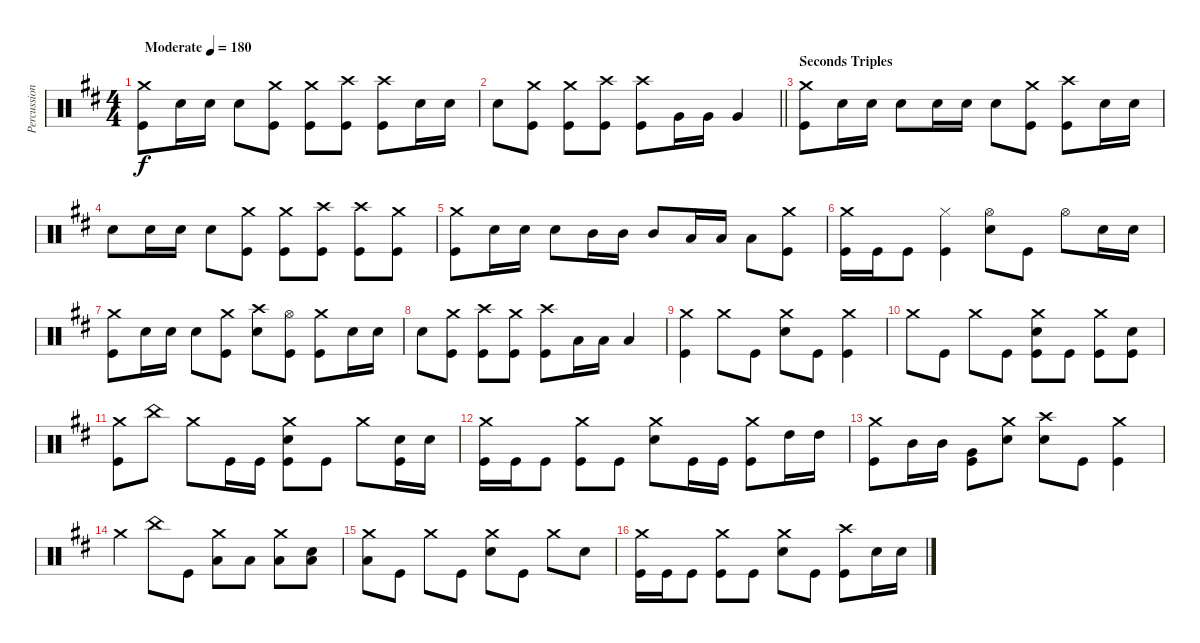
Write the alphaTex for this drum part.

\track ("Percussion" "Percussion") {instrument percussion}
\staff {score}
\articulation defaults
\ts (4 4)
\section ("" "")
\tempo (180 "Moderate")
\clef neutral
\ks d
("Crash medium (hit)" "Kick (hit)").8{dy f} "Electric Snare (hit)".16 "Electric Snare (hit)".16 "Electric Snare (hit)".8 ("Crash medium (hit)" "Kick (hit)").8 ("Crash medium (hit)" "Kick (hit)").8 ("Crash high (hit)" "Kick (hit)").8 ("Crash high (hit)" "Kick (hit)").8 "Electric Snare (hit)".16 "Electric Snare (hit)".16 |
\barLineRight lightlight "Electric Snare (hit)".8
("Crash medium (hit)" "Kick (hit)").8 ("Crash medium (hit)" "Kick (hit)").8 ("Crash high (hit)" "Kick (hit)").8 ("Crash high (hit)" "Kick (hit)").8 "Very Low Tom (hit)".16 "Very Low Tom (hit)".16 "Very Low Tom (hit)".4 |
\section ("" "Seconds Triples")
("Crash medium (hit)" "Kick (hit)").8 "Electric Snare (hit)".16 "Electric Snare (hit)".16 "Electric Snare (hit)".8 "Electric Snare (hit)".16 "Electric Snare (hit)".16 "Electric Snare (hit)".8 ("Crash medium (hit)" "Kick (hit)").8 ("Crash high (hit)" "Kick (hit)").8 "Electric Snare (hit)".16 "Electric Snare (hit)".16 |
"Electric Snare (hit)".8 "Electric Snare (hit)".16 "Electric Snare (hit)".16 "Electric Snare (hit)".8 ("Crash medium (hit)" "Kick (hit)").8 ("Crash medium (hit)" "Kick (hit)").8 ("Crash high (hit)" "Kick (hit)").8 ("Crash high (hit)" "Kick (hit)").8 ("Crash medium (hit)" "Kick (hit)").8 |
("Crash medium (hit)" "Kick (hit)").8 "Electric Snare (hit)".16 "Electric Snare (hit)".16 "Electric Snare (hit)".8 "Mid Tom (hit)".16 "Mid Tom (hit)".16 "Mid Tom (hit)".8 "Low Tom (hit)".16 "Low Tom (hit)".16 "Low Tom (hit)".8 ("Crash medium (hit)" "Kick (hit)").8 |
("Crash medium (hit)" "Kick (hit)").16 "Kick (hit)".16 "Kick (hit)".8 ("Hi-Hat (closed)" "Kick (hit)").4 ("Hi-Hat (open)" "Electric Snare (hit)").8 "Kick (hit)".8 "Hi-Hat (open)".8 "Electric Snare (hit)".16 "Electric Snare (hit)".16 |
("Crash medium (hit)" "Kick (hit)").8 "Electric Snare (hit)".16 "Electric Snare (hit)".16 "Electric Snare (hit)".8 ("Crash medium (hit)" "Kick (hit)").8 ("Crash high (hit)" "Electric Snare (hit)").8 ("Hi-Hat (open)" "Kick (hit)").8 ("Crash medium (hit)" "Kick (hit)").8 "Electric Snare (hit)".16 "Electric Snare (hit)".16 |
"Electric Snare (hit)".8 ("Crash medium (hit)" "Kick (hit)").8 ("Crash high (hit)" "Kick (hit)").8 ("Crash medium (hit)" "Kick (hit)").8 ("Crash high (hit)" "Kick (hit)").8 "Low Floor Tom (hit)".16 "Low Floor Tom (hit)".16 "Low Floor Tom (hit)".4 |
("Crash medium (hit)" "Kick (hit)").4 "Crash medium (hit)".8 "Kick (hit)".8 ("Crash medium (hit)" "Electric Snare (hit)").8 "Kick (hit)".8 ("Crash medium (hit)" "Kick (hit)").4 |
"Crash medium (hit)".8 "Kick (hit)".8 "Crash medium (hit)".8 "Kick (hit)".8 ("Crash medium (hit)" "Electric Snare (hit)" "Kick (hit)").8 "Kick (hit)".8 ("Crash medium (hit)" "Kick (hit)").8 ("Electric Snare (hit)" "Kick (hit)").8 |
("Crash medium (hit)" "Kick (hit)").8 "China (hit)".8 "Crash medium (hit)".8 "Kick (hit)".16 "Kick (hit)".16 ("Crash medium (hit)" "Electric Snare (hit)" "Kick (hit)").8 "Kick (hit)".8 "Crash medium (hit)".8 ("Electric Snare (hit)" "Kick (hit)").16 "Electric Snare (hit)".16 |
("Crash medium (hit)" "Kick (hit)").16 "Kick (hit)".16 "Kick (hit)".8 ("Crash medium (hit)" "Kick (hit)").8 "Kick (hit)".8 ("Crash medium (hit)" "Electric Snare (hit)").8 "Kick (hit)".16 "Kick (hit)".16 ("Crash medium (hit)" "Kick (hit)").8 "High Tom (hit)".16 "High Tom (hit)".16 |
("Crash medium (hit)" "Kick (hit)").8 "Mid Tom (hit)".16 "Mid Tom (hit)".16 ("Very Low Tom (hit)" "Kick (hit)").8 ("Crash medium (hit)" "Electric Snare (hit)").8 ("Crash high (hit)" "Electric Snare (hit)").8 "Kick (hit)".8 ("Crash medium (hit)" "Kick (hit)").4 |
"Crash medium (hit)".4 "China (hit)".8 "Kick (hit)".8 ("Crash medium (hit)" "Low Floor Tom (hit)").8 "Low Floor Tom (hit)".8 ("Crash medium (hit)" "Low Floor Tom (hit)").8 ("Electric Snare (hit)" "Low Floor Tom (hit)").8 |
("Crash medium (hit)" "Low Floor Tom (hit)").8 "Kick (hit)".8 "Crash medium (hit)".8 "Kick (hit)".8 ("Crash medium (hit)" "Electric Snare (hit)").8 "Kick (hit)".8 "Crash medium (hit)".8 "Electric Snare (hit)".8 |
("Crash medium (hit)" "Kick (hit)").16 "Kick (hit)".16 "Kick (hit)".8 ("Crash medium (hit)" "Kick (hit)").8 "Kick (hit)".8 ("Crash medium (hit)" "Electric Snare (hit)").8 "Kick (hit)".8 ("Crash high (hit)" "Kick (hit)").8 "Electric Snare (hit)".16 "Electric Snare (hit)".16
